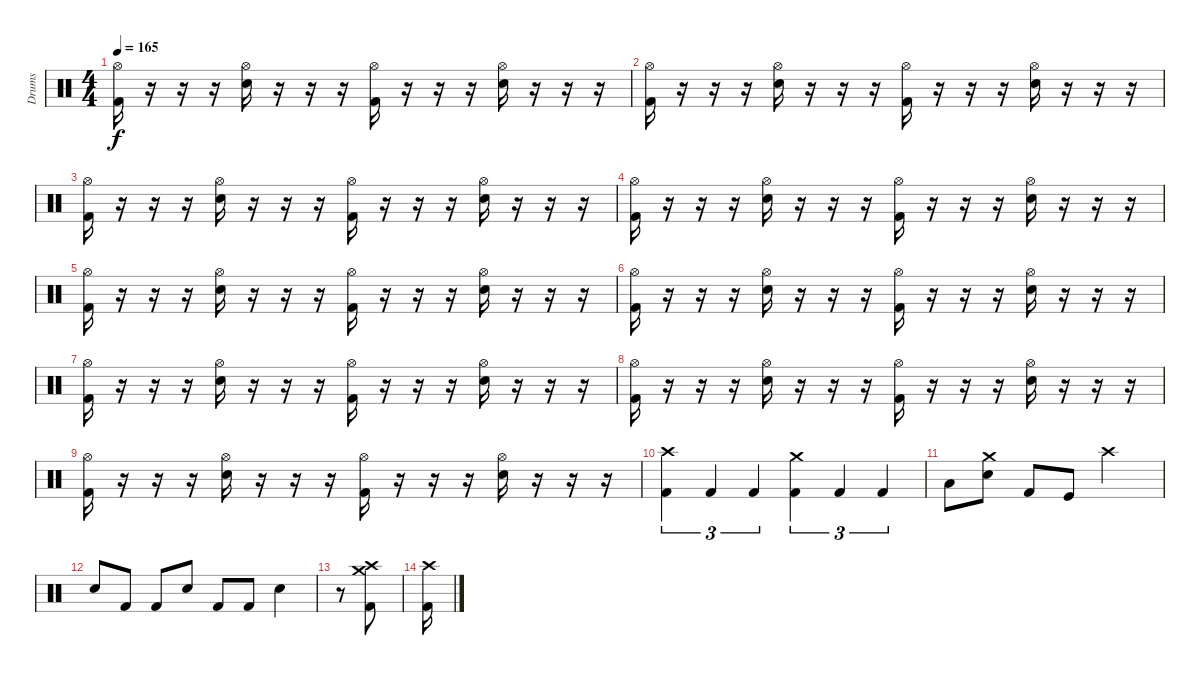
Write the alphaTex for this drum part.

\track ("Drums" "Drums") {instrument percussion}
\staff {score}
\articulation defaults
\ts (4 4)
\tempo 165
\clef neutral
\ks c
("Hi-Hat (open)" "Kick (hit) 2").16{dy f} r.16 r.16 r.16 ("Hi-Hat (open)" "Electric Snare (hit)").16 r.16 r.16 r.16 ("Hi-Hat (open)" "Kick (hit) 2").16 r.16 r.16 r.16 ("Hi-Hat (open)" "Electric Snare (hit)").16 r.16 r.16 r.16 |
("Hi-Hat (open)" "Kick (hit) 2").16 r.16 r.16 r.16 ("Hi-Hat (open)" "Electric Snare (hit)").16 r.16 r.16 r.16 ("Hi-Hat (open)" "Kick (hit) 2").16 r.16 r.16 r.16 ("Hi-Hat (open)" "Electric Snare (hit)").16 r.16 r.16 r.16 |
("Hi-Hat (open)" "Kick (hit) 2").16 r.16 r.16 r.16 ("Hi-Hat (open)" "Electric Snare (hit)").16 r.16 r.16 r.16 ("Hi-Hat (open)" "Kick (hit) 2").16 r.16 r.16 r.16 ("Hi-Hat (open)" "Electric Snare (hit)").16 r.16 r.16 r.16 |
("Hi-Hat (open)" "Kick (hit) 2").16 r.16 r.16 r.16 ("Hi-Hat (open)" "Electric Snare (hit)").16 r.16 r.16 r.16 ("Hi-Hat (open)" "Kick (hit) 2").16 r.16 r.16 r.16 ("Hi-Hat (open)" "Electric Snare (hit)").16 r.16 r.16 r.16 |
("Hi-Hat (open)" "Kick (hit) 2").16 r.16 r.16 r.16 ("Hi-Hat (open)" "Electric Snare (hit)").16 r.16 r.16 r.16 ("Hi-Hat (open)" "Kick (hit) 2").16 r.16 r.16 r.16 ("Hi-Hat (open)" "Electric Snare (hit)").16 r.16 r.16 r.16 |
("Hi-Hat (open)" "Kick (hit) 2").16 r.16 r.16 r.16 ("Hi-Hat (open)" "Electric Snare (hit)").16 r.16 r.16 r.16 ("Hi-Hat (open)" "Kick (hit) 2").16 r.16 r.16 r.16 ("Hi-Hat (open)" "Electric Snare (hit)").16 r.16 r.16 r.16 |
("Hi-Hat (open)" "Kick (hit) 2").16 r.16 r.16 r.16 ("Hi-Hat (open)" "Electric Snare (hit)").16 r.16 r.16 r.16 ("Hi-Hat (open)" "Kick (hit) 2").16 r.16 r.16 r.16 ("Hi-Hat (open)" "Electric Snare (hit)").16 r.16 r.16 r.16 |
("Hi-Hat (open)" "Kick (hit) 2").16 r.16 r.16 r.16 ("Hi-Hat (open)" "Electric Snare (hit)").16 r.16 r.16 r.16 ("Hi-Hat (open)" "Kick (hit) 2").16 r.16 r.16 r.16 ("Hi-Hat (open)" "Electric Snare (hit)").16 r.16 r.16 r.16 |
("Hi-Hat (open)" "Kick (hit) 2").16 r.16 r.16 r.16 ("Hi-Hat (open)" "Electric Snare (hit)").16 r.16 r.16 r.16 ("Hi-Hat (open)" "Kick (hit) 2").16 r.16 r.16 r.16 ("Hi-Hat (open)" "Electric Snare (hit)").16 r.16 r.16 r.16 |
("Crash high (hit)" "Kick (hit) 2").4{tu (3 2)} "Kick (hit) 2".4{tu (3 2)} "Kick (hit) 2".4{tu (3 2)} ("Crash medium (hit)" "Kick (hit) 2").4{tu (3 2)} "Kick (hit) 2".4{tu (3 2)} "Kick (hit) 2".4{tu (3 2)} |
"Low Tom (hit)".8 ("Crash medium (hit)" "Electric Snare (hit)").8 "Kick (hit) 2".8 "Kick (hit)".8 "Crash high (hit)".2 |
"Electric Snare (hit)".8 "Kick (hit) 2".8 "Kick (hit) 2".8 "Electric Snare (hit)".8 "Kick (hit) 2".8 "Kick (hit) 2".8 "Electric Snare (hit)".4 |
r.8 ("Crash high (hit)" "Crash medium (hit)" "Kick (hit) 2").8 |
("Crash high (hit)" "Kick (hit) 2").16
